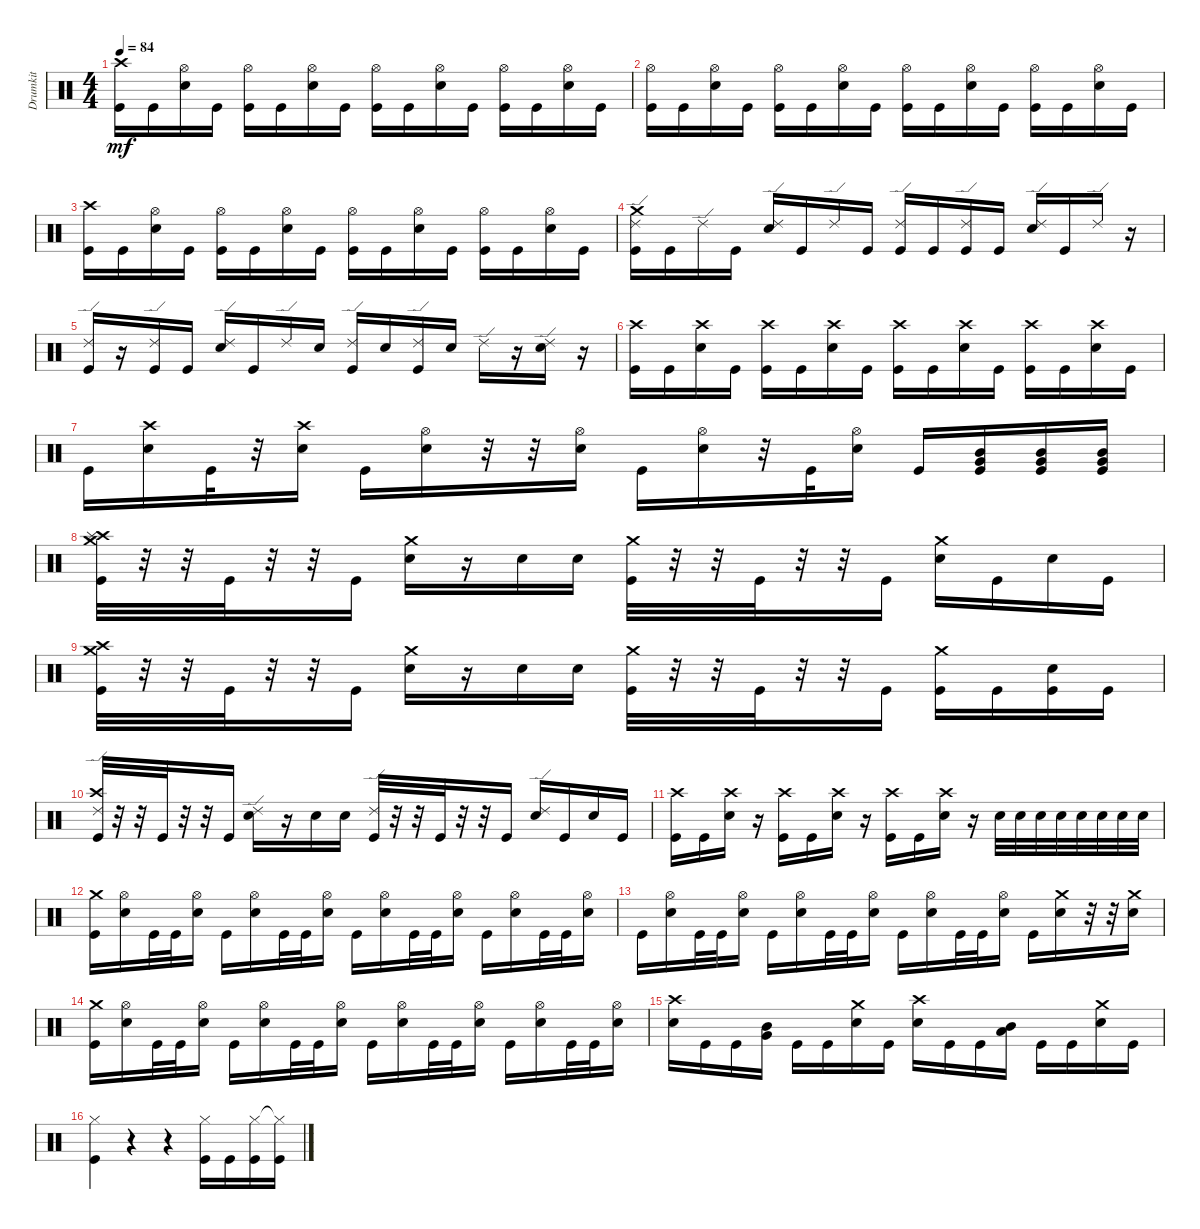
\track ("Drumkit" "Drumkit") {instrument percussion}
\staff {score}
\articulation defaults
\ts (4 4)
\tempo 84
\clef neutral
\ks c
("Kick (hit)" "Crash high (hit)").16{dy mf} "Kick (hit)".16 ("Hi-Hat (open)" "Snare (hit) 2").16 "Kick (hit)".16 ("Kick (hit)" "Hi-Hat (open)").16 "Kick (hit)".16 ("Hi-Hat (open)" "Snare (hit) 2").16 "Kick (hit)".16 ("Kick (hit)" "Hi-Hat (open)").16 "Kick (hit)".16 ("Hi-Hat (open)" "Snare (hit) 2").16 "Kick (hit)".16 ("Kick (hit)" "Hi-Hat (open)").16 "Kick (hit)".16 ("Snare (hit) 2" "Hi-Hat (open)").16 "Kick (hit)".16 |
("Kick (hit)" "Hi-Hat (open)").16 "Kick (hit)".16 ("Snare (hit) 2" "Hi-Hat (open)").16 "Kick (hit)".16 ("Kick (hit)" "Hi-Hat (open)").16 "Kick (hit)".16 ("Snare (hit) 2" "Hi-Hat (open)").16 "Kick (hit)".16 ("Kick (hit)" "Hi-Hat (open)").16 "Kick (hit)".16 ("Snare (hit) 2" "Hi-Hat (open)").16 "Kick (hit)".16 ("Kick (hit)" "Hi-Hat (open)").16 "Kick (hit)".16 ("Snare (hit) 2" "Hi-Hat (open)").16 "Kick (hit)".16 |
("Kick (hit)" "Crash high (hit)").16 "Kick (hit)".16 ("Snare (hit) 2" "Hi-Hat (open)").16 "Kick (hit)".16 ("Kick (hit)" "Hi-Hat (open)").16 "Kick (hit)".16 ("Snare (hit) 2" "Hi-Hat (open)").16 "Kick (hit)".16 ("Kick (hit)" "Hi-Hat (open)").16 "Kick (hit)".16 ("Snare (hit) 2" "Hi-Hat (open)").16 "Kick (hit)".16 ("Kick (hit)" "Hi-Hat (open)").16 "Kick (hit)".16 ("Snare (hit) 2" "Hi-Hat (open)").16 "Kick (hit)".16 |
("Kick (hit)" "Ride (edge) 2" "Crash medium (hit)").16 "Kick (hit)".16 "Ride (edge) 2".16 "Kick (hit)".16 ("Ride (edge) 2" "Snare (hit) 2").16 "Kick (hit)".16 "Ride (edge) 2".16 "Kick (hit)".16 ("Ride (edge) 2" "Kick (hit)").16 "Kick (hit)".16 ("Ride (edge) 2" "Kick (hit)").16 "Kick (hit)".16 ("Ride (edge) 2" "Snare (hit) 2").16 "Kick (hit)".16 "Ride (edge) 2".16 r.16 |
("Kick (hit)" "Ride (edge) 2").16 r.16 ("Kick (hit)" "Ride (edge) 2").16 "Kick (hit)".16 ("Ride (edge) 2" "Snare (hit) 2").16 "Kick (hit)".16 "Ride (edge) 2".16 "Snare (hit) 2".16 ("Ride (edge) 2" "Kick (hit)").16 "Snare (hit) 2".16 ("Ride (edge) 2" "Kick (hit)").16 "Snare (hit) 2".16 "Ride (edge) 2".16 r.16 ("Ride (edge) 2" "Snare (hit) 2").16 r.16 |
("Kick (hit)" "Crash high (hit)").16 "Kick (hit)".16 ("Snare (hit) 2" "Crash high (hit)").16 "Kick (hit)".16 ("Kick (hit)" "Crash high (hit)").16 "Kick (hit)".16 ("Snare (hit) 2" "Crash high (hit)").16 "Kick (hit)".16 ("Kick (hit)" "Crash high (hit)").16 "Kick (hit)".16 ("Snare (hit) 2" "Crash high (hit)").16 "Kick (hit)".16 ("Kick (hit)" "Crash high (hit)").16 "Kick (hit)".16 ("Snare (hit) 2" "Crash high (hit)").16 "Kick (hit)".16 |
"Kick (hit)".16 ("Snare (hit) 2" "Crash high (hit)").16 "Kick (hit)".32 r.32 ("Snare (hit) 2" "Crash high (hit)").16 "Kick (hit)".16 ("Hi-Hat (open)" "Snare (hit) 2").16 r.32 r.32 ("Hi-Hat (open)" "Snare (hit) 2").16 "Kick (hit)".16 ("Hi-Hat (open)" "Snare (hit) 2").16 r.32 "Kick (hit)".32 ("Hi-Hat (open)" "Snare (hit) 2").16 "Kick (hit)".16 ("Very Low Tom (hit)" "Mid Tom (hit)" "Kick (hit)").16 ("Very Low Tom (hit)" "Mid Tom (hit)" "Kick (hit)").16 ("Very Low Tom (hit)" "Mid Tom (hit)" "Kick (hit)").16 |
("Kick (hit)" "Crash medium (hit)" "Crash high (hit)" "Splash (hit)").32 r.32 r.32 "Kick (hit)".32 r.32 r.32 "Kick (hit)".16 ("Snare (hit) 2" "Crash medium (hit)").16 r.16 "Snare (hit) 2".16 "Snare (hit) 2".16 ("Kick (hit)" "Crash medium (hit)").32 r.32 r.32 "Kick (hit)".32 r.32 r.32 "Kick (hit)".16 ("Snare (hit) 2" "Crash medium (hit)").16 "Kick (hit)".16 "Snare (hit) 2".16 "Kick (hit)".16 |
("Kick (hit)" "Crash medium (hit)" "Crash high (hit)").32 r.32 r.32 "Kick (hit)".32 r.32 r.32 "Kick (hit)".16 ("Snare (hit) 2" "Crash medium (hit)").16 r.16 "Snare (hit) 2".16 "Snare (hit) 2".16 ("Kick (hit)" "Crash medium (hit)").32 r.32 r.32 "Kick (hit)".32 r.32 r.32 "Kick (hit)".16 ("Crash medium (hit)" "Kick (hit)").16 "Kick (hit)".16 ("Snare (hit) 2" "Kick (hit)").16 "Kick (hit)".16 |
("Kick (hit)" "Crash high (hit)" "Ride (edge) 2").32 r.32 r.32 "Kick (hit)".32 r.32 r.32 "Kick (hit)".16 ("Snare (hit) 2" "Ride (edge) 2").16 r.16 "Snare (hit) 2".16 "Snare (hit) 2".16 ("Kick (hit)" "Ride (edge) 2").32 r.32 r.32 "Kick (hit)".32 r.32 r.32 "Kick (hit)".16 ("Snare (hit) 2" "Ride (edge) 2").16 "Kick (hit)".16 "Snare (hit) 2".16 "Kick (hit)".16 |
("Kick (hit)" "Crash high (hit)").16 "Kick (hit)".16 ("Snare (hit) 2" "Crash high (hit)").16 r.16 ("Kick (hit)" "Crash high (hit)").16 "Kick (hit)".16 ("Snare (hit) 2" "Crash high (hit)").16 r.16 ("Kick (hit)" "Crash high (hit)").16 "Kick (hit)".16 ("Snare (hit) 2" "Crash high (hit)").16 r.16 "Snare (hit) 2".32 "Snare (hit) 2".32 "Snare (hit) 2".32 "Snare (hit) 2".32 "Snare (hit) 2".32 "Snare (hit) 2".32 "Snare (hit) 2".32 "Snare (hit) 2".32 |
("Kick (hit)" "Crash medium (hit)").16 ("Snare (hit) 2" "Hi-Hat (open)").16 "Kick (hit)".32 "Kick (hit)".32 ("Snare (hit) 2" "Hi-Hat (open)").16 "Kick (hit)".16 ("Snare (hit) 2" "Hi-Hat (open)").16 "Kick (hit)".32 "Kick (hit)".32 ("Snare (hit) 2" "Hi-Hat (open)").16 "Kick (hit)".16 ("Snare (hit) 2" "Hi-Hat (open)").16 "Kick (hit)".32 "Kick (hit)".32 ("Snare (hit) 2" "Hi-Hat (open)").16 "Kick (hit)".16 ("Snare (hit) 2" "Hi-Hat (open)").16 "Kick (hit)".32 "Kick (hit)".32 ("Snare (hit) 2" "Hi-Hat (open)").16 |
"Kick (hit)".16 ("Snare (hit) 2" "Hi-Hat (open)").16 "Kick (hit)".32 "Kick (hit)".32 ("Snare (hit) 2" "Hi-Hat (open)").16 "Kick (hit)".16 ("Snare (hit) 2" "Hi-Hat (open)").16 "Kick (hit)".32 "Kick (hit)".32 ("Snare (hit) 2" "Hi-Hat (open)").16 "Kick (hit)".16 ("Snare (hit) 2" "Hi-Hat (open)").16 "Kick (hit)".32 "Kick (hit)".32 ("Snare (hit) 2" "Hi-Hat (open)").16 "Kick (hit)".16 ("Snare (hit) 2" "Crash medium (hit)").16 r.32 r.32 ("Snare (hit) 2" "Crash medium (hit)").16 |
("Kick (hit)" "Crash medium (hit)").16 ("Snare (hit) 2" "Hi-Hat (open)").16 "Kick (hit)".32 "Kick (hit)".32 ("Snare (hit) 2" "Hi-Hat (open)").16 "Kick (hit)".16 ("Snare (hit) 2" "Hi-Hat (open)").16 "Kick (hit)".32 "Kick (hit)".32 ("Snare (hit) 2" "Hi-Hat (open)").16 "Kick (hit)".16 ("Snare (hit) 2" "Hi-Hat (open)").16 "Kick (hit)".32 "Kick (hit)".32 ("Snare (hit) 2" "Hi-Hat (open)").16 "Kick (hit)".16 ("Snare (hit) 2" "Hi-Hat (open)").16 "Kick (hit)".32 "Kick (hit)".32 ("Snare (hit) 2" "Hi-Hat (open)").16 |
("Snare (hit) 2" "Crash high (hit)").16 "Kick (hit)".16 "Kick (hit)".16 ("Mid Tom (hit)" "Very Low Tom (hit)").16 "Kick (hit)".16 "Kick (hit)".16 ("Snare (hit) 2" "Crash medium (hit)").16 "Kick (hit)".16 ("Snare (hit) 2" "Crash high (hit)").16 "Kick (hit)".16 "Kick (hit)".16 ("Low Floor Tom (hit)" "Mid Tom (hit)").16 "Kick (hit)".16 "Kick (hit)".16 ("Snare (hit) 2" "Crash medium (hit)").16 "Kick (hit)".16 |
("Kick (hit)" "Hi-Hat (closed)").4 r.4 r.4 ("Kick (hit)" "Hi-Hat (closed)").16 "Kick (hit)".16 ("Kick (hit)" "Hi-Hat (closed)").16 ("Kick (hit)" "Hi-Hat (closed)"{t}).16
